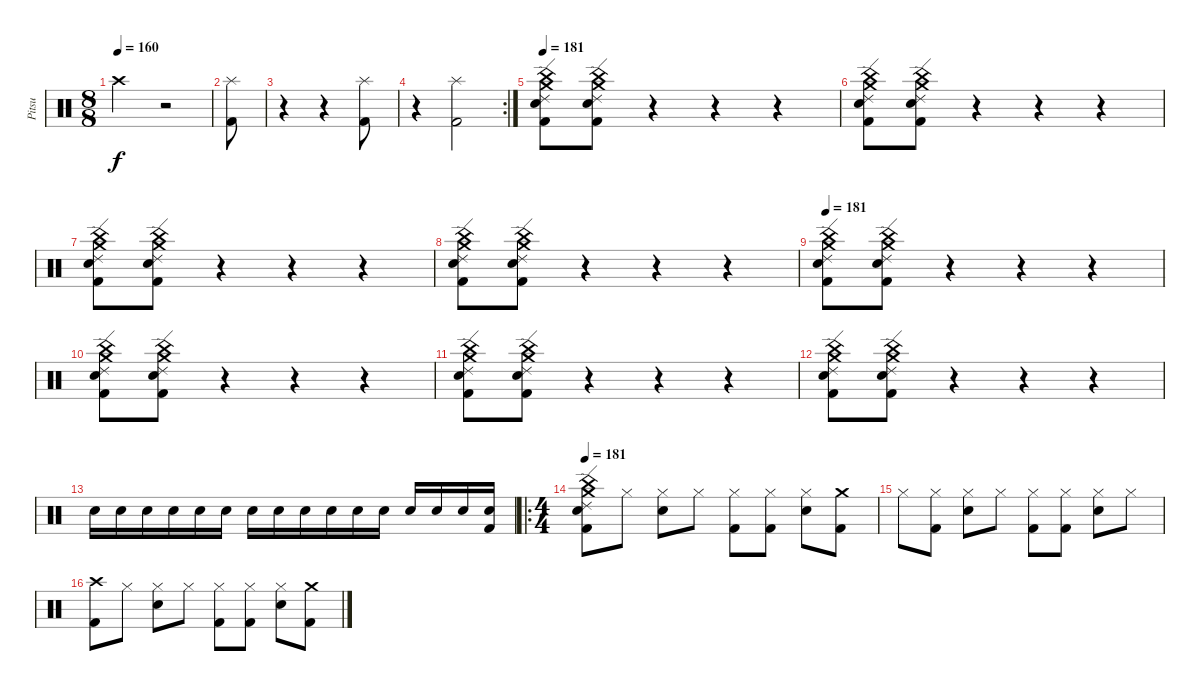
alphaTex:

\track ("Pitsu" "Pitsu") {instrument percussion}
\staff {score}
\articulation defaults
\ts (8 8)
\tempo 160
\clef neutral
\ks c "Crash high (hit)".2{dy f}
r.2 |
("Splash (hit)" "Kick (hit) 2").8 |
r.4 r.4 ("Splash (hit)" "Kick (hit) 2").8 |
\rc 2
r.4 ("Splash (hit)" "Kick (hit) 2").2 |
\tempo 181
("China (hit)" "Ride (edge) 2" "Snare (hit) 2" "Crash medium (hit)" "Kick (hit) 2").8 ("China (hit)" "Ride (edge) 2" "Snare (hit) 2" "Crash medium (hit)" "Kick (hit) 2").8 r.4 r.4 r.4 |
("China (hit)" "Ride (edge) 2" "Snare (hit) 2" "Crash medium (hit)" "Kick (hit) 2").8 ("China (hit)" "Ride (edge) 2" "Snare (hit) 2" "Crash medium (hit)" "Kick (hit) 2").8 r.4 r.4 r.4 |
("China (hit)" "Ride (edge) 2" "Snare (hit) 2" "Crash medium (hit)" "Kick (hit) 2").8 ("China (hit)" "Ride (edge) 2" "Snare (hit) 2" "Crash medium (hit)" "Kick (hit) 2").8 r.4 r.4 r.4 |
("China (hit)" "Ride (edge) 2" "Snare (hit) 2" "Crash medium (hit)" "Kick (hit) 2").8 ("China (hit)" "Ride (edge) 2" "Snare (hit) 2" "Crash medium (hit)" "Kick (hit) 2").8 r.4 r.4 r.4 |
\tempo 181
("China (hit)" "Ride (edge) 2" "Snare (hit) 2" "Crash medium (hit)" "Kick (hit) 2").8 ("China (hit)" "Ride (edge) 2" "Snare (hit) 2" "Crash medium (hit)" "Kick (hit) 2").8 r.4 r.4 r.4 |
("China (hit)" "Ride (edge) 2" "Snare (hit) 2" "Crash medium (hit)" "Kick (hit) 2").8 ("China (hit)" "Ride (edge) 2" "Snare (hit) 2" "Crash medium (hit)" "Kick (hit) 2").8 r.4 r.4 r.4 |
("China (hit)" "Ride (edge) 2" "Snare (hit) 2" "Crash medium (hit)" "Kick (hit) 2").8 ("China (hit)" "Ride (edge) 2" "Snare (hit) 2" "Crash medium (hit)" "Kick (hit) 2").8 r.4 r.4 r.4 |
("China (hit)" "Ride (edge) 2" "Snare (hit) 2" "Crash medium (hit)" "Kick (hit) 2").8 ("China (hit)" "Ride (edge) 2" "Snare (hit) 2" "Crash medium (hit)" "Kick (hit) 2").8 r.4 r.4 r.4 |
"Electric Snare (hit)".16 "Electric Snare (hit)".16 "Electric Snare (hit)".16 "Electric Snare (hit)".16 "Electric Snare (hit)".16 "Electric Snare (hit)".16 "Electric Snare (hit)".16 "Electric Snare (hit)".16 "Electric Snare (hit)".16 "Electric Snare (hit)".16 "Electric Snare (hit)".16 "Electric Snare (hit)".16 "Electric Snare (hit)".16 "Electric Snare (hit)".16 "Electric Snare (hit)".16 ("Electric Snare (hit)" "Kick (hit) 2").16 |
\ro
\ts (4 4)
\tempo 181
("China (hit)" "Ride (edge) 2" "Snare (hit) 2" "Crash medium (hit)" "Kick (hit) 2").8 "Hi-Hat (closed)".8 ("Hi-Hat (closed)" "Electric Snare (hit)").8 "Hi-Hat (closed)".8 ("Hi-Hat (closed)" "Kick (hit) 2").8 ("Hi-Hat (closed)" "Kick (hit) 2").8 ("Hi-Hat (closed)" "Electric Snare (hit)").8 ("Crash medium (hit)" "Kick (hit) 2").8 |
"Hi-Hat (closed)".8 ("Hi-Hat (closed)" "Kick (hit) 2").8 ("Hi-Hat (closed)" "Electric Snare (hit)").8 "Hi-Hat (closed)".8 ("Hi-Hat (closed)" "Kick (hit) 2").8 ("Hi-Hat (closed)" "Kick (hit) 2").8 ("Hi-Hat (closed)" "Electric Snare (hit)").8 "Hi-Hat (closed)".8 |
("Crash high (hit)" "Kick (hit) 2").8 "Hi-Hat (closed)".8 ("Hi-Hat (closed)" "Electric Snare (hit)").8 "Hi-Hat (closed)".8 ("Hi-Hat (closed)" "Kick (hit) 2").8 ("Hi-Hat (closed)" "Kick (hit) 2").8 ("Hi-Hat (closed)" "Electric Snare (hit)").8 ("Crash medium (hit)" "Kick (hit) 2").8
